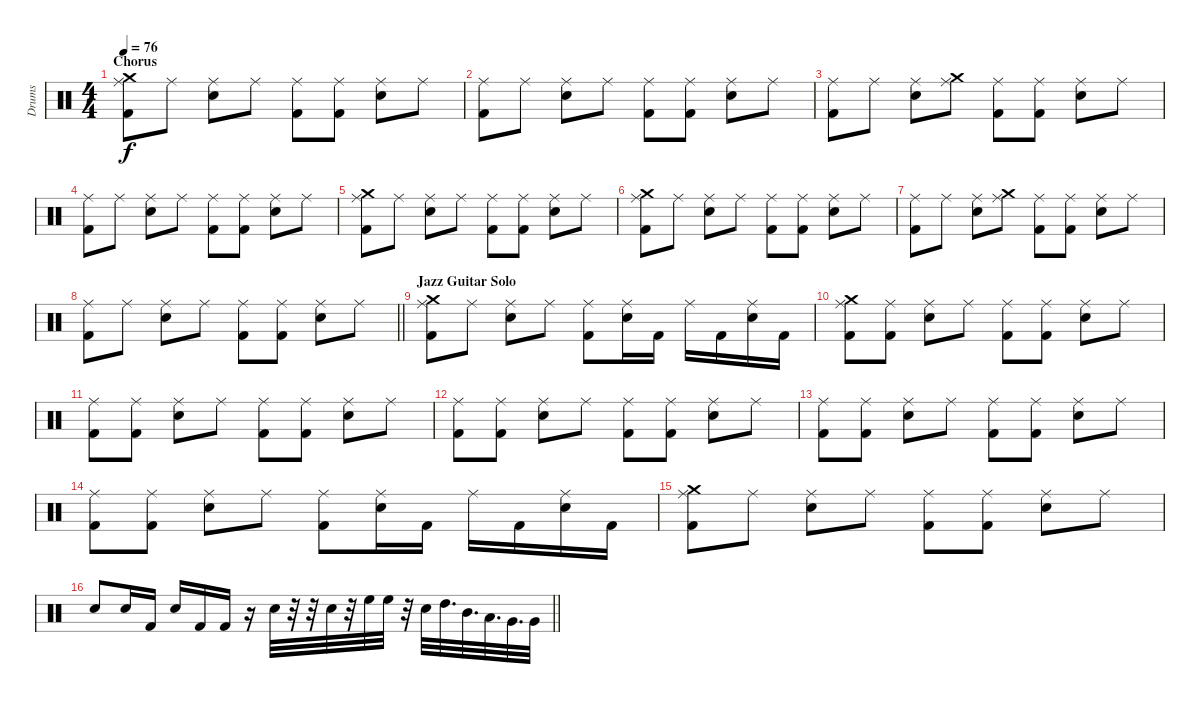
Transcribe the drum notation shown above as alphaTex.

\track ("Drums" "Drums") {instrument percussion}
\staff {score}
\articulation defaults
\ts (4 4)
\section ("" "Chorus")
\tempo 76
\clef neutral
\ks c
("Ride (middle)" "Crash medium (hit)" "Kick (hit) 2").8{dy f} "Ride (middle)".8 ("Ride (middle)" "Electric Snare (hit)").8 "Ride (middle)".8 ("Ride (middle)" "Kick (hit) 2").8 ("Ride (middle)" "Kick (hit) 2").8 ("Ride (middle)" "Electric Snare (hit)").8 "Ride (middle)".8 |
("Ride (middle)" "Kick (hit) 2").8 "Ride (middle)".8 ("Ride (middle)" "Electric Snare (hit)").8 "Ride (middle)".8 ("Ride (middle)" "Kick (hit) 2").8 ("Ride (middle)" "Kick (hit) 2").8 ("Ride (middle)" "Electric Snare (hit)").8 "Ride (middle)".8 |
("Ride (middle)" "Kick (hit) 2").8 "Ride (middle)".8 ("Ride (middle)" "Electric Snare (hit)").8 ("Ride (middle)" "Crash medium (hit)").8 ("Ride (middle)" "Kick (hit) 2").8 ("Ride (middle)" "Kick (hit) 2").8 ("Ride (middle)" "Electric Snare (hit)").8 "Ride (middle)".8 |
("Ride (middle)" "Kick (hit) 2").8 "Ride (middle)".8 ("Ride (middle)" "Electric Snare (hit)").8 "Ride (middle)".8 ("Ride (middle)" "Kick (hit) 2").8 ("Ride (middle)" "Kick (hit) 2").8 ("Ride (middle)" "Electric Snare (hit)").8 "Ride (middle)".8 |
("Ride (middle)" "Crash medium (hit)" "Kick (hit) 2").8 "Ride (middle)".8 ("Ride (middle)" "Electric Snare (hit)").8 "Ride (middle)".8 ("Ride (middle)" "Kick (hit) 2").8 ("Ride (middle)" "Kick (hit) 2").8 ("Ride (middle)" "Electric Snare (hit)").8 "Ride (middle)".8 |
("Ride (middle)" "Crash medium (hit)" "Kick (hit) 2").8 "Ride (middle)".8 ("Ride (middle)" "Electric Snare (hit)").8 "Ride (middle)".8 ("Ride (middle)" "Kick (hit) 2").8 ("Ride (middle)" "Kick (hit) 2").8 ("Ride (middle)" "Electric Snare (hit)").8 "Ride (middle)".8 |
("Ride (middle)" "Kick (hit) 2").8 "Ride (middle)".8 ("Ride (middle)" "Electric Snare (hit)").8 ("Ride (middle)" "Crash medium (hit)").8 ("Ride (middle)" "Kick (hit) 2").8 ("Ride (middle)" "Kick (hit) 2").8 ("Ride (middle)" "Electric Snare (hit)").8 "Ride (middle)".8 |
\barLineRight lightlight
("Ride (middle)" "Kick (hit) 2").8 "Ride (middle)".8 ("Ride (middle)" "Electric Snare (hit)").8 "Ride (middle)".8 ("Ride (middle)" "Kick (hit) 2").8 ("Ride (middle)" "Kick (hit) 2").8 ("Ride (middle)" "Electric Snare (hit)").8 "Ride (middle)".8 |
\section ("" "Jazz Guitar Solo")
("Ride (middle)" "Crash medium (hit)" "Kick (hit) 2").8 "Ride (middle)".8 ("Ride (middle)" "Electric Snare (hit)").8 "Ride (middle)".8 ("Ride (middle)" "Kick (hit) 2").8 ("Ride (middle)" "Electric Snare (hit)").16 "Kick (hit) 2".16 "Ride (middle)".16 "Kick (hit) 2".16 ("Ride (middle)" "Electric Snare (hit)").16 "Kick (hit) 2".16 |
("Ride (middle)" "Crash medium (hit)" "Kick (hit) 2").8 ("Ride (middle)" "Kick (hit) 2").8 ("Ride (middle)" "Electric Snare (hit)").8 "Ride (middle)".8 ("Ride (middle)" "Kick (hit) 2").8 ("Ride (middle)" "Kick (hit) 2").8 ("Ride (middle)" "Electric Snare (hit)").8 "Ride (middle)".8 |
("Ride (middle)" "Kick (hit) 2").8 ("Ride (middle)" "Kick (hit) 2").8 ("Ride (middle)" "Electric Snare (hit)").8 "Ride (middle)".8 ("Ride (middle)" "Kick (hit) 2").8 ("Ride (middle)" "Kick (hit) 2").8 ("Ride (middle)" "Electric Snare (hit)").8 "Ride (middle)".8 |
("Ride (middle)" "Kick (hit) 2").8 ("Ride (middle)" "Kick (hit) 2").8 ("Ride (middle)" "Electric Snare (hit)").8 "Ride (middle)".8 ("Ride (middle)" "Kick (hit) 2").8 ("Ride (middle)" "Kick (hit) 2").8 ("Ride (middle)" "Electric Snare (hit)").8 "Ride (middle)".8 |
("Ride (middle)" "Kick (hit) 2").8 ("Ride (middle)" "Kick (hit) 2").8 ("Ride (middle)" "Electric Snare (hit)").8 "Ride (middle)".8 ("Ride (middle)" "Kick (hit) 2").8 ("Ride (middle)" "Kick (hit) 2").8 ("Ride (middle)" "Electric Snare (hit)").8 "Ride (middle)".8 |
("Ride (middle)" "Kick (hit) 2").8 ("Ride (middle)" "Kick (hit) 2").8 ("Ride (middle)" "Electric Snare (hit)").8 "Ride (middle)".8 ("Ride (middle)" "Kick (hit) 2").8 ("Ride (middle)" "Electric Snare (hit)").16 "Kick (hit) 2".16 "Ride (middle)".16 "Kick (hit) 2".16 ("Ride (middle)" "Electric Snare (hit)").16 "Kick (hit) 2".16 |
("Ride (middle)" "Crash medium (hit)" "Kick (hit) 2").8 "Ride (middle)".8 ("Ride (middle)" "Electric Snare (hit)").8 "Ride (middle)".8 ("Ride (middle)" "Kick (hit) 2").8 ("Ride (middle)" "Kick (hit) 2").8 ("Ride (middle)" "Electric Snare (hit)").8 "Ride (middle)".8 |
\barLineRight lightlight "Electric Snare (hit)".8 "Electric Snare (hit)".16 "Kick (hit) 2".16 "Electric Snare (hit)".16 "Kick (hit) 2".16 "Kick (hit) 2".16
r.16 "Electric Snare (hit)".32 r.32 r.32 "Electric Snare (hit)".32 r.32 "High Floor Tom (hit)".32 "High Floor Tom (hit)".32 r.32 "Electric Snare (hit)".32 "High Tom (hit)".32{d} "Mid Tom (hit)".32{d} "Low Tom (hit)".32{d} "Very Low Tom (hit)".32{d} "Very Low Tom (hit)".32
